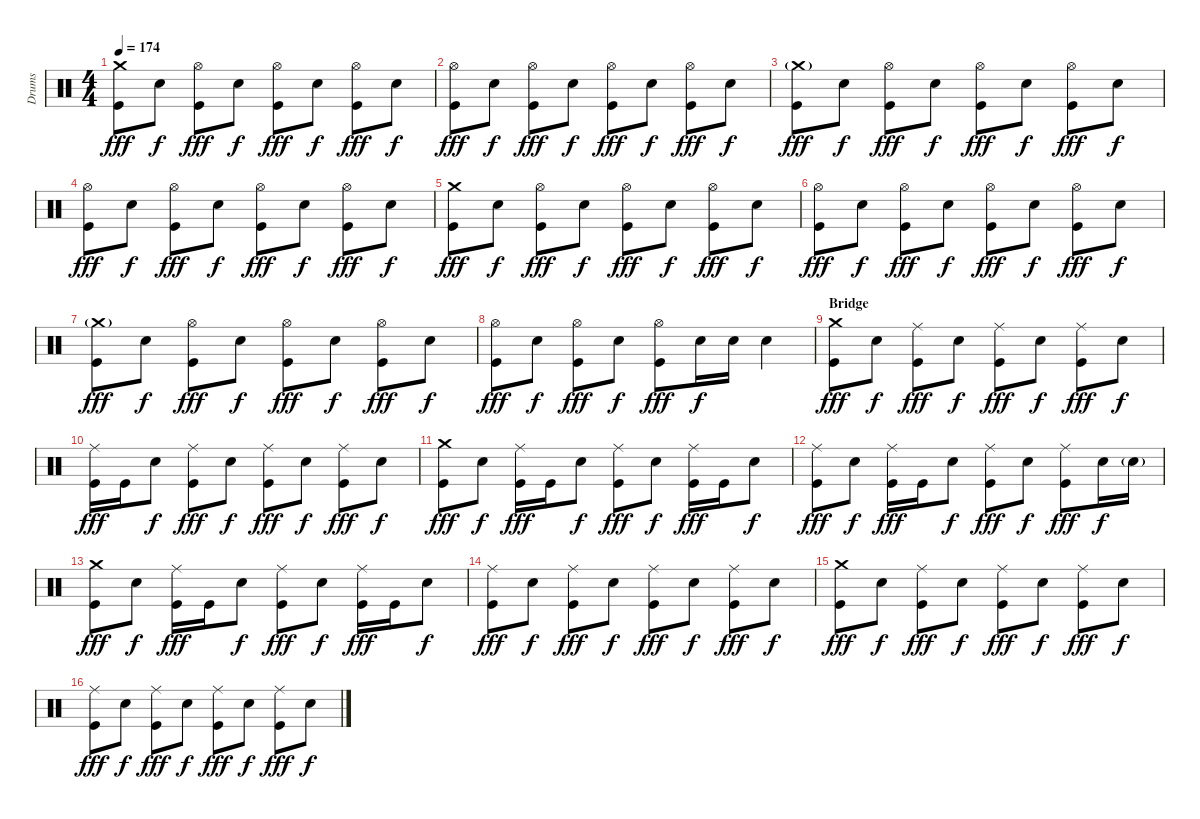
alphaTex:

\track ("Drums" "Drums") {instrument percussion}
\staff {score}
\articulation defaults
\ts (4 4)
\tempo 174
\clef neutral
\ks c
("Crash medium (hit)" "Kick (hit)").8{dy fff} "Snare (hit) 2".8{dy f} ("Hi-Hat (open)" "Kick (hit)").8{dy fff} "Snare (hit) 2".8{dy f} ("Hi-Hat (open)" "Kick (hit)").8{dy fff} "Snare (hit) 2".8{dy f} ("Hi-Hat (open)" "Kick (hit)").8{dy fff} "Snare (hit) 2".8{dy f} |
("Hi-Hat (open)" "Kick (hit)").8{dy fff} "Snare (hit) 2".8{dy f} ("Hi-Hat (open)" "Kick (hit)").8{dy fff} "Snare (hit) 2".8{dy f} ("Hi-Hat (open)" "Kick (hit)").8{dy fff} "Snare (hit) 2".8{dy f} ("Hi-Hat (open)" "Kick (hit)").8{dy fff} "Snare (hit) 2".8{dy f} |
("Crash medium (hit)"{g} "Kick (hit)").8{dy fff} "Snare (hit) 2".8{dy f} ("Hi-Hat (open)" "Kick (hit)").8{dy fff} "Snare (hit) 2".8{dy f} ("Hi-Hat (open)" "Kick (hit)").8{dy fff} "Snare (hit) 2".8{dy f} ("Hi-Hat (open)" "Kick (hit)").8{dy fff} "Snare (hit) 2".8{dy f} |
("Hi-Hat (open)" "Kick (hit)").8{dy fff} "Snare (hit) 2".8{dy f} ("Hi-Hat (open)" "Kick (hit)").8{dy fff} "Snare (hit) 2".8{dy f} ("Hi-Hat (open)" "Kick (hit)").8{dy fff} "Snare (hit) 2".8{dy f} ("Hi-Hat (open)" "Kick (hit)").8{dy fff} "Snare (hit) 2".8{dy f} |
("Crash medium (hit)" "Kick (hit)").8{dy fff} "Snare (hit) 2".8{dy f} ("Hi-Hat (open)" "Kick (hit)").8{dy fff} "Snare (hit) 2".8{dy f} ("Hi-Hat (open)" "Kick (hit)").8{dy fff} "Snare (hit) 2".8{dy f} ("Hi-Hat (open)" "Kick (hit)").8{dy fff} "Snare (hit) 2".8{dy f} |
("Hi-Hat (open)" "Kick (hit)").8{dy fff} "Snare (hit) 2".8{dy f} ("Hi-Hat (open)" "Kick (hit)").8{dy fff} "Snare (hit) 2".8{dy f} ("Hi-Hat (open)" "Kick (hit)").8{dy fff} "Snare (hit) 2".8{dy f} ("Hi-Hat (open)" "Kick (hit)").8{dy fff} "Snare (hit) 2".8{dy f} |
("Crash medium (hit)"{g} "Kick (hit)").8{dy fff} "Snare (hit) 2".8{dy f} ("Hi-Hat (open)" "Kick (hit)").8{dy fff} "Snare (hit) 2".8{dy f} ("Hi-Hat (open)" "Kick (hit)").8{dy fff} "Snare (hit) 2".8{dy f} ("Hi-Hat (open)" "Kick (hit)").8{dy fff} "Snare (hit) 2".8{dy f} |
("Hi-Hat (open)" "Kick (hit)").8{dy fff} "Snare (hit) 2".8{dy f} ("Hi-Hat (open)" "Kick (hit)").8{dy fff} "Snare (hit) 2".8{dy f} ("Hi-Hat (open)" "Kick (hit)").8{dy fff} "Snare (hit) 2".16{dy f} "Snare (hit) 2".16 "Snare (hit) 2".4 |
\section ("" "Bridge")
("Crash medium (hit)" "Kick (hit)").8{dy fff} "Snare (hit) 2".8{dy f} ("Ride (middle)" "Kick (hit)").8{dy fff} "Snare (hit) 2".8{dy f} ("Ride (middle)" "Kick (hit)").8{dy fff} "Snare (hit) 2".8{dy f} ("Ride (middle)" "Kick (hit)").8{dy fff} "Snare (hit) 2".8{dy f} |
("Ride (middle)" "Kick (hit)").16{dy fff} "Kick (hit)".16 "Snare (hit) 2".8{dy f} ("Ride (middle)" "Kick (hit)").8{dy fff} "Snare (hit) 2".8{dy f} ("Ride (middle)" "Kick (hit)").8{dy fff} "Snare (hit) 2".8{dy f} ("Ride (middle)" "Kick (hit)").8{dy fff} "Snare (hit) 2".8{dy f} |
("Crash medium (hit)" "Kick (hit)").8{dy fff} "Snare (hit) 2".8{dy f} ("Ride (middle)" "Kick (hit)").16{dy fff} "Kick (hit)".16 "Snare (hit) 2".8{dy f} ("Ride (middle)" "Kick (hit)").8{dy fff} "Snare (hit) 2".8{dy f} ("Ride (middle)" "Kick (hit)").16{dy fff} "Kick (hit)".16 "Snare (hit) 2".8{dy f} |
("Ride (middle)" "Kick (hit)").8{dy fff} "Snare (hit) 2".8{dy f} ("Ride (middle)" "Kick (hit)").16{dy fff} "Kick (hit)".16 "Snare (hit) 2".8{dy f} ("Ride (middle)" "Kick (hit)").8{dy fff} "Snare (hit) 2".8{dy f} ("Ride (middle)" "Kick (hit)").8{dy fff} "Snare (hit) 2".16{dy f} "Snare (hit) 2"{g}.16 |
("Crash medium (hit)" "Kick (hit)").8{dy fff} "Snare (hit) 2".8{dy f} ("Ride (middle)" "Kick (hit)").16{dy fff} "Kick (hit)".16 "Snare (hit) 2".8{dy f} ("Ride (middle)" "Kick (hit)").8{dy fff} "Snare (hit) 2".8{dy f} ("Ride (middle)" "Kick (hit)").16{dy fff} "Kick (hit)".16 "Snare (hit) 2".8{dy f} |
("Ride (middle)" "Kick (hit)").8{dy fff} "Snare (hit) 2".8{dy f} ("Ride (middle)" "Kick (hit)").8{dy fff} "Snare (hit) 2".8{dy f} ("Ride (middle)" "Kick (hit)").8{dy fff} "Snare (hit) 2".8{dy f} ("Ride (middle)" "Kick (hit)").8{dy fff} "Snare (hit) 2".8{dy f} |
("Crash medium (hit)" "Kick (hit)").8{dy fff} "Snare (hit) 2".8{dy f} ("Ride (middle)" "Kick (hit)").8{dy fff} "Snare (hit) 2".8{dy f} ("Ride (middle)" "Kick (hit)").8{dy fff} "Snare (hit) 2".8{dy f} ("Ride (middle)" "Kick (hit)").8{dy fff} "Snare (hit) 2".8{dy f} |
("Ride (middle)" "Kick (hit)").8{dy fff} "Snare (hit) 2".8{dy f} ("Ride (middle)" "Kick (hit)").8{dy fff} "Snare (hit) 2".8{dy f} ("Ride (middle)" "Kick (hit)").8{dy fff} "Snare (hit) 2".8{dy f} ("Ride (middle)" "Kick (hit)").8{dy fff} "Snare (hit) 2".8{dy f}
